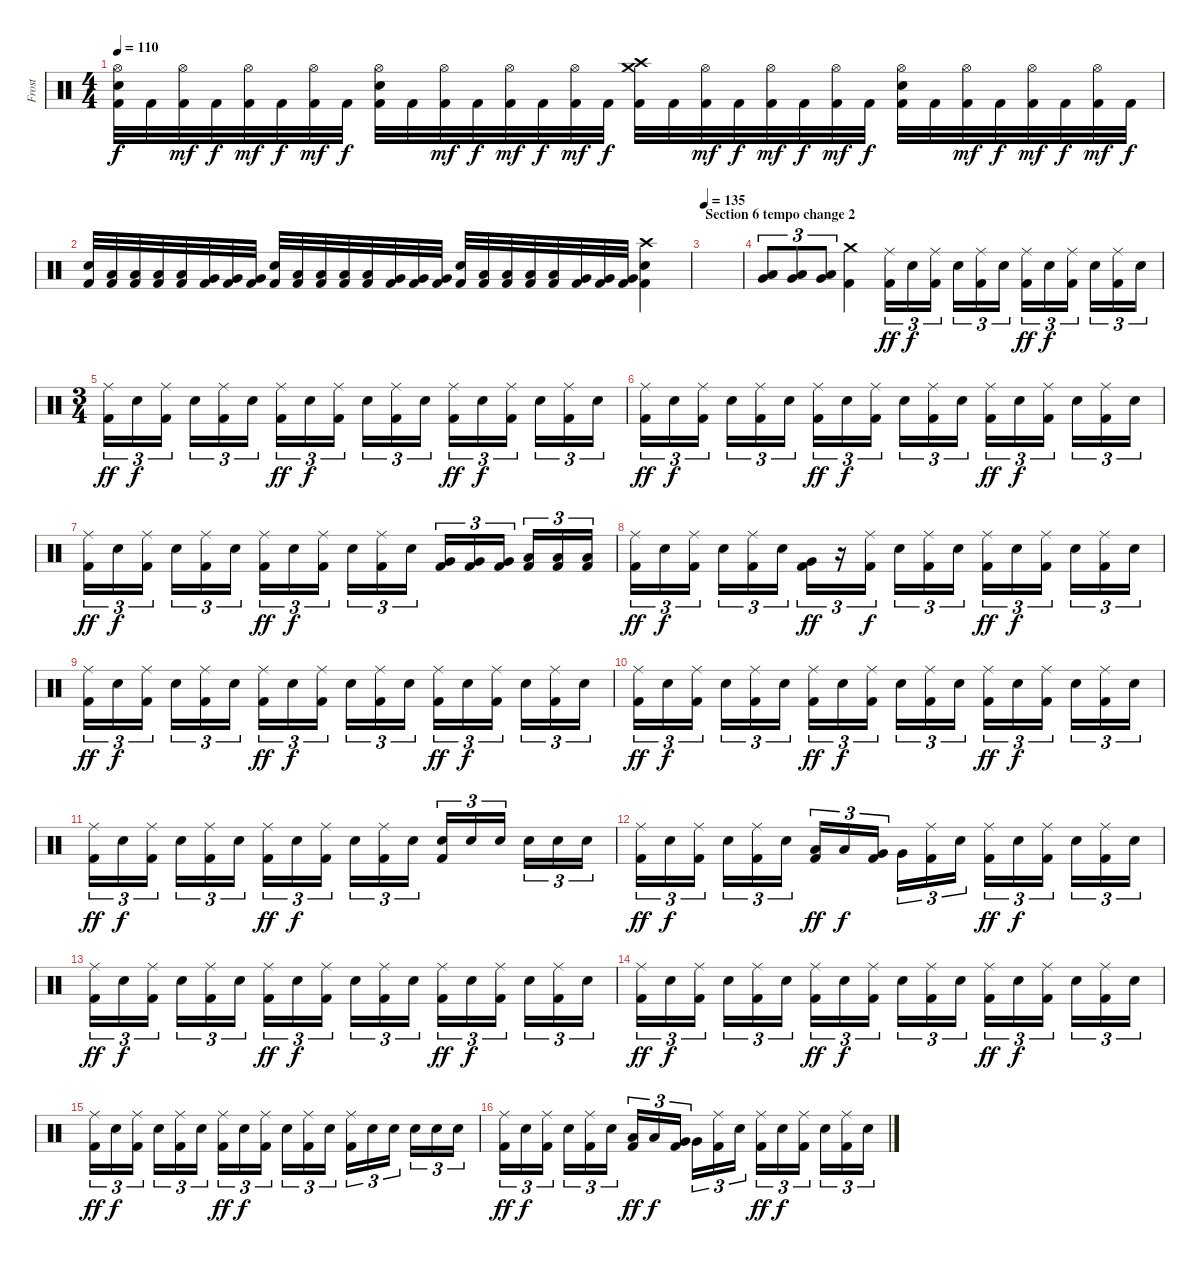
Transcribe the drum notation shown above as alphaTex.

\track ("Frost" "Frost") {instrument percussion}
\staff {score}
\articulation defaults
\ts (4 4)
\tempo 110
\clef neutral
\ks c
("Hi-Hat (open)" "Electric Snare (hit)" "Kick (hit) 2").32{dy f} "Kick (hit) 2".32 ("Hi-Hat (open)" "Kick (hit) 2").32{dy mf} "Kick (hit) 2".32{dy f} ("Hi-Hat (open)" "Kick (hit) 2").32{dy mf} "Kick (hit) 2".32{dy f} ("Hi-Hat (open)" "Kick (hit) 2").32{dy mf} "Kick (hit) 2".32{dy f} ("Hi-Hat (open)" "Electric Snare (hit)" "Kick (hit) 2").32 "Kick (hit) 2".32 ("Hi-Hat (open)" "Kick (hit) 2").32{dy mf} "Kick (hit) 2".32{dy f} ("Hi-Hat (open)" "Kick (hit) 2").32{dy mf} "Kick (hit) 2".32{dy f} ("Hi-Hat (open)" "Kick (hit) 2").32{dy mf} "Kick (hit) 2".32{dy f} ("Crash high (hit)" "Crash medium (hit)" "Kick (hit) 2").32 "Kick (hit) 2".32 ("Hi-Hat (open)" "Kick (hit) 2").32{dy mf} "Kick (hit) 2".32{dy f} ("Hi-Hat (open)" "Kick (hit) 2").32{dy mf} "Kick (hit) 2".32{dy f} ("Hi-Hat (open)" "Kick (hit) 2").32{dy mf} "Kick (hit) 2".32{dy f} ("Hi-Hat (open)" "Electric Snare (hit)" "Kick (hit) 2").32 "Kick (hit) 2".32 ("Hi-Hat (open)" "Kick (hit) 2").32{dy mf} "Kick (hit) 2".32{dy f} ("Hi-Hat (open)" "Kick (hit) 2").32{dy mf} "Kick (hit) 2".32{dy f} ("Hi-Hat (open)" "Kick (hit) 2").32{dy mf} "Kick (hit) 2".32{dy f} |
("Electric Snare (hit)" "Kick (hit) 2").32 ("Low Tom (hit)" "Kick (hit) 2").32 ("Low Tom (hit)" "Kick (hit) 2").32 ("Low Tom (hit)" "Kick (hit) 2").32 ("Low Tom (hit)" "Kick (hit) 2").32 ("Very Low Tom (hit)" "Kick (hit) 2").32 ("Very Low Tom (hit)" "Kick (hit) 2").32 ("Very Low Tom (hit)" "Kick (hit) 2").32 ("Electric Snare (hit)" "Kick (hit) 2").32 ("Low Tom (hit)" "Kick (hit) 2").32 ("Low Tom (hit)" "Kick (hit) 2").32 ("Low Tom (hit)" "Kick (hit) 2").32 ("Low Tom (hit)" "Kick (hit) 2").32 ("Very Low Tom (hit)" "Kick (hit) 2").32 ("Very Low Tom (hit)" "Kick (hit) 2").32 ("Very Low Tom (hit)" "Kick (hit) 2").32 ("Electric Snare (hit)" "Kick (hit) 2").32 ("Low Tom (hit)" "Kick (hit) 2").32 ("Low Tom (hit)" "Kick (hit) 2").32 ("Low Tom (hit)" "Kick (hit) 2").32 ("Low Tom (hit)" "Kick (hit) 2").32 ("Very Low Tom (hit)" "Kick (hit) 2").32 ("Very Low Tom (hit)" "Kick (hit) 2").32 ("Very Low Tom (hit)" "Kick (hit) 2").32 ("Crash high (hit)" "Electric Snare (hit)" "Kick (hit) 2").4 |
\section ("" "Section 6 tempo change 2")
\tempo 135
|
("Very Low Tom (hit)" "Low Floor Tom (hit)").8{tu (3 2)} ("Very Low Tom (hit)" "Low Floor Tom (hit)").8{tu (3 2)} ("Very Low Tom (hit)" "Low Floor Tom (hit)").8{tu (3 2)} ("Crash medium (hit)" "Kick (hit) 2").4 ("Ride (middle)" "Kick (hit) 2").16{tu (3 2) dy ff} "Electric Snare (hit)".16{tu (3 2) dy f} ("Ride (middle)" "Kick (hit) 2").16{tu (3 2)} "Electric Snare (hit)".16{tu (3 2)} ("Ride (middle)" "Kick (hit) 2").16{tu (3 2)} "Electric Snare (hit)".16{tu (3 2)} ("Ride (middle)" "Kick (hit) 2").16{tu (3 2) dy ff} "Electric Snare (hit)".16{tu (3 2) dy f} ("Ride (middle)" "Kick (hit) 2").16{tu (3 2)} "Electric Snare (hit)".16{tu (3 2)} ("Ride (middle)" "Kick (hit) 2").16{tu (3 2)} "Electric Snare (hit)".16{tu (3 2)} |
\ts (3 4)
("Ride (middle)" "Kick (hit) 2").16{tu (3 2) dy ff} "Electric Snare (hit)".16{tu (3 2) dy f} ("Ride (middle)" "Kick (hit) 2").16{tu (3 2)} "Electric Snare (hit)".16{tu (3 2)} ("Ride (middle)" "Kick (hit) 2").16{tu (3 2)} "Electric Snare (hit)".16{tu (3 2)} ("Ride (middle)" "Kick (hit) 2").16{tu (3 2) dy ff} "Electric Snare (hit)".16{tu (3 2) dy f} ("Ride (middle)" "Kick (hit) 2").16{tu (3 2)} "Electric Snare (hit)".16{tu (3 2)} ("Ride (middle)" "Kick (hit) 2").16{tu (3 2)} "Electric Snare (hit)".16{tu (3 2)} ("Ride (middle)" "Kick (hit) 2").16{tu (3 2) dy ff} "Electric Snare (hit)".16{tu (3 2) dy f} ("Ride (middle)" "Kick (hit) 2").16{tu (3 2)} "Electric Snare (hit)".16{tu (3 2)} ("Ride (middle)" "Kick (hit) 2").16{tu (3 2)} "Electric Snare (hit)".16{tu (3 2)} |
("Ride (middle)" "Kick (hit) 2").16{tu (3 2) dy ff} "Electric Snare (hit)".16{tu (3 2) dy f} ("Ride (middle)" "Kick (hit) 2").16{tu (3 2)} "Electric Snare (hit)".16{tu (3 2)} ("Ride (middle)" "Kick (hit) 2").16{tu (3 2)} "Electric Snare (hit)".16{tu (3 2)} ("Ride (middle)" "Kick (hit) 2").16{tu (3 2) dy ff} "Electric Snare (hit)".16{tu (3 2) dy f} ("Ride (middle)" "Kick (hit) 2").16{tu (3 2)} "Electric Snare (hit)".16{tu (3 2)} ("Ride (middle)" "Kick (hit) 2").16{tu (3 2)} "Electric Snare (hit)".16{tu (3 2)} ("Ride (middle)" "Kick (hit) 2").16{tu (3 2) dy ff} "Electric Snare (hit)".16{tu (3 2) dy f} ("Ride (middle)" "Kick (hit) 2").16{tu (3 2)} "Electric Snare (hit)".16{tu (3 2)} ("Ride (middle)" "Kick (hit) 2").16{tu (3 2)} "Electric Snare (hit)".16{tu (3 2)} |
("Ride (middle)" "Kick (hit) 2").16{tu (3 2) dy ff} "Electric Snare (hit)".16{tu (3 2) dy f} ("Ride (middle)" "Kick (hit) 2").16{tu (3 2)} "Electric Snare (hit)".16{tu (3 2)} ("Ride (middle)" "Kick (hit) 2").16{tu (3 2)} "Electric Snare (hit)".16{tu (3 2)} ("Ride (middle)" "Kick (hit) 2").16{tu (3 2) dy ff} "Electric Snare (hit)".16{tu (3 2) dy f} ("Ride (middle)" "Kick (hit) 2").16{tu (3 2)} "Electric Snare (hit)".16{tu (3 2)} ("Ride (middle)" "Kick (hit) 2").16{tu (3 2)} "Electric Snare (hit)".16{tu (3 2)} ("Very Low Tom (hit)" "Kick (hit) 2").16{tu (3 2)} ("Very Low Tom (hit)" "Kick (hit) 2").16{tu (3 2)} ("Very Low Tom (hit)" "Kick (hit) 2").16{tu (3 2)} ("Low Floor Tom (hit)" "Kick (hit) 2").16{tu (3 2)} ("Low Floor Tom (hit)" "Kick (hit) 2").16{tu (3 2)} ("Low Floor Tom (hit)" "Kick (hit) 2").16{tu (3 2)} |
("Ride (middle)" "Kick (hit) 2").16{tu (3 2) dy ff} "Electric Snare (hit)".16{tu (3 2) dy f} ("Ride (middle)" "Kick (hit) 2").16{tu (3 2)} "Electric Snare (hit)".16{tu (3 2)} ("Ride (middle)" "Kick (hit) 2").16{tu (3 2)} "Electric Snare (hit)".16{tu (3 2)} ("Very Low Tom (hit)" "Kick (hit) 2").16{tu (3 2) dy ff} r.16{tu (3 2)} ("Ride (middle)" "Kick (hit) 2").16{tu (3 2) dy f} "Electric Snare (hit)".16{tu (3 2)} ("Ride (middle)" "Kick (hit) 2").16{tu (3 2)} "Electric Snare (hit)".16{tu (3 2)} ("Ride (middle)" "Kick (hit) 2").16{tu (3 2) dy ff} "Electric Snare (hit)".16{tu (3 2) dy f} ("Ride (middle)" "Kick (hit) 2").16{tu (3 2)} "Electric Snare (hit)".16{tu (3 2)} ("Ride (middle)" "Kick (hit) 2").16{tu (3 2)} "Electric Snare (hit)".16{tu (3 2)} |
("Ride (middle)" "Kick (hit) 2").16{tu (3 2) dy ff} "Electric Snare (hit)".16{tu (3 2) dy f} ("Ride (middle)" "Kick (hit) 2").16{tu (3 2)} "Electric Snare (hit)".16{tu (3 2)} ("Ride (middle)" "Kick (hit) 2").16{tu (3 2)} "Electric Snare (hit)".16{tu (3 2)} ("Ride (middle)" "Kick (hit) 2").16{tu (3 2) dy ff} "Electric Snare (hit)".16{tu (3 2) dy f} ("Ride (middle)" "Kick (hit) 2").16{tu (3 2)} "Electric Snare (hit)".16{tu (3 2)} ("Ride (middle)" "Kick (hit) 2").16{tu (3 2)} "Electric Snare (hit)".16{tu (3 2)} ("Ride (middle)" "Kick (hit) 2").16{tu (3 2) dy ff} "Electric Snare (hit)".16{tu (3 2) dy f} ("Ride (middle)" "Kick (hit) 2").16{tu (3 2)} "Electric Snare (hit)".16{tu (3 2)} ("Ride (middle)" "Kick (hit) 2").16{tu (3 2)} "Electric Snare (hit)".16{tu (3 2)} |
("Ride (middle)" "Kick (hit) 2").16{tu (3 2) dy ff} "Electric Snare (hit)".16{tu (3 2) dy f} ("Ride (middle)" "Kick (hit) 2").16{tu (3 2)} "Electric Snare (hit)".16{tu (3 2)} ("Ride (middle)" "Kick (hit) 2").16{tu (3 2)} "Electric Snare (hit)".16{tu (3 2)} ("Ride (middle)" "Kick (hit) 2").16{tu (3 2) dy ff} "Electric Snare (hit)".16{tu (3 2) dy f} ("Ride (middle)" "Kick (hit) 2").16{tu (3 2)} "Electric Snare (hit)".16{tu (3 2)} ("Ride (middle)" "Kick (hit) 2").16{tu (3 2)} "Electric Snare (hit)".16{tu (3 2)} ("Ride (middle)" "Kick (hit) 2").16{tu (3 2) dy ff} "Electric Snare (hit)".16{tu (3 2) dy f} ("Ride (middle)" "Kick (hit) 2").16{tu (3 2)} "Electric Snare (hit)".16{tu (3 2)} ("Ride (middle)" "Kick (hit) 2").16{tu (3 2)} "Electric Snare (hit)".16{tu (3 2)} |
("Ride (middle)" "Kick (hit) 2").16{tu (3 2) dy ff} "Electric Snare (hit)".16{tu (3 2) dy f} ("Ride (middle)" "Kick (hit) 2").16{tu (3 2)} "Electric Snare (hit)".16{tu (3 2)} ("Ride (middle)" "Kick (hit) 2").16{tu (3 2)} "Electric Snare (hit)".16{tu (3 2)} ("Ride (middle)" "Kick (hit) 2").16{tu (3 2) dy ff} "Electric Snare (hit)".16{tu (3 2) dy f} ("Ride (middle)" "Kick (hit) 2").16{tu (3 2)} "Electric Snare (hit)".16{tu (3 2)} ("Ride (middle)" "Kick (hit) 2").16{tu (3 2)} "Electric Snare (hit)".16{tu (3 2)} ("Electric Snare (hit)" "Kick (hit) 2").16{tu (3 2)} "Electric Snare (hit)".16{tu (3 2)} "Electric Snare (hit)".16{tu (3 2)} "Electric Snare (hit)".16{tu (3 2)} "Electric Snare (hit)".16{tu (3 2)} "Electric Snare (hit)".16{tu (3 2)} |
("Ride (middle)" "Kick (hit) 2").16{tu (3 2) dy ff} "Electric Snare (hit)".16{tu (3 2) dy f} ("Ride (middle)" "Kick (hit) 2").16{tu (3 2)} "Electric Snare (hit)".16{tu (3 2)} ("Ride (middle)" "Kick (hit) 2").16{tu (3 2)} "Electric Snare (hit)".16{tu (3 2)} ("Low Tom (hit)" "Kick (hit) 2").16{tu (3 2) dy ff} "Low Tom (hit)".16{tu (3 2) dy f} ("Very Low Tom (hit)" "Kick (hit) 2").16{tu (3 2)} "Very Low Tom (hit)".16{tu (3 2)} ("Ride (middle)" "Kick (hit) 2").16{tu (3 2)} "Electric Snare (hit)".16{tu (3 2)} ("Ride (middle)" "Kick (hit) 2").16{tu (3 2) dy ff} "Electric Snare (hit)".16{tu (3 2) dy f} ("Ride (middle)" "Kick (hit) 2").16{tu (3 2)} "Electric Snare (hit)".16{tu (3 2)} ("Ride (middle)" "Kick (hit) 2").16{tu (3 2)} "Electric Snare (hit)".16{tu (3 2)} |
("Ride (middle)" "Kick (hit) 2").16{tu (3 2) dy ff} "Electric Snare (hit)".16{tu (3 2) dy f} ("Ride (middle)" "Kick (hit) 2").16{tu (3 2)} "Electric Snare (hit)".16{tu (3 2)} ("Ride (middle)" "Kick (hit) 2").16{tu (3 2)} "Electric Snare (hit)".16{tu (3 2)} ("Ride (middle)" "Kick (hit) 2").16{tu (3 2) dy ff} "Electric Snare (hit)".16{tu (3 2) dy f} ("Ride (middle)" "Kick (hit) 2").16{tu (3 2)} "Electric Snare (hit)".16{tu (3 2)} ("Ride (middle)" "Kick (hit) 2").16{tu (3 2)} "Electric Snare (hit)".16{tu (3 2)} ("Ride (middle)" "Kick (hit) 2").16{tu (3 2) dy ff} "Electric Snare (hit)".16{tu (3 2) dy f} ("Ride (middle)" "Kick (hit) 2").16{tu (3 2)} "Electric Snare (hit)".16{tu (3 2)} ("Ride (middle)" "Kick (hit) 2").16{tu (3 2)} "Electric Snare (hit)".16{tu (3 2)} |
("Ride (middle)" "Kick (hit) 2").16{tu (3 2) dy ff} "Electric Snare (hit)".16{tu (3 2) dy f} ("Ride (middle)" "Kick (hit) 2").16{tu (3 2)} "Electric Snare (hit)".16{tu (3 2)} ("Ride (middle)" "Kick (hit) 2").16{tu (3 2)} "Electric Snare (hit)".16{tu (3 2)} ("Ride (middle)" "Kick (hit) 2").16{tu (3 2) dy ff} "Electric Snare (hit)".16{tu (3 2) dy f} ("Ride (middle)" "Kick (hit) 2").16{tu (3 2)} "Electric Snare (hit)".16{tu (3 2)} ("Ride (middle)" "Kick (hit) 2").16{tu (3 2)} "Electric Snare (hit)".16{tu (3 2)} ("Ride (middle)" "Kick (hit) 2").16{tu (3 2) dy ff} "Electric Snare (hit)".16{tu (3 2) dy f} ("Ride (middle)" "Kick (hit) 2").16{tu (3 2)} "Electric Snare (hit)".16{tu (3 2)} ("Ride (middle)" "Kick (hit) 2").16{tu (3 2)} "Electric Snare (hit)".16{tu (3 2)} |
("Ride (middle)" "Kick (hit) 2").16{tu (3 2) dy ff} "Electric Snare (hit)".16{tu (3 2) dy f} ("Ride (middle)" "Kick (hit) 2").16{tu (3 2)} "Electric Snare (hit)".16{tu (3 2)} ("Ride (middle)" "Kick (hit) 2").16{tu (3 2)} "Electric Snare (hit)".16{tu (3 2)} ("Ride (middle)" "Kick (hit) 2").16{tu (3 2) dy ff} "Electric Snare (hit)".16{tu (3 2) dy f} ("Ride (middle)" "Kick (hit) 2").16{tu (3 2)} "Electric Snare (hit)".16{tu (3 2)} ("Ride (middle)" "Kick (hit) 2").16{tu (3 2)} "Electric Snare (hit)".16{tu (3 2)} ("Ride (middle)" "Kick (hit) 2").16{tu (3 2)} "Electric Snare (hit)".16{tu (3 2)} "Electric Snare (hit)".16{tu (3 2)} "Electric Snare (hit)".16{tu (3 2)} "Electric Snare (hit)".16{tu (3 2)} "Electric Snare (hit)".16{tu (3 2)} |
("Ride (middle)" "Kick (hit) 2").16{tu (3 2) dy ff} "Electric Snare (hit)".16{tu (3 2) dy f} ("Ride (middle)" "Kick (hit) 2").16{tu (3 2)} "Electric Snare (hit)".16{tu (3 2)} ("Ride (middle)" "Kick (hit) 2").16{tu (3 2)} "Electric Snare (hit)".16{tu (3 2)} ("Low Tom (hit)" "Kick (hit) 2").16{tu (3 2) dy ff} "Low Tom (hit)".16{tu (3 2) dy f} ("Very Low Tom (hit)" "Kick (hit) 2").16{tu (3 2)} "Very Low Tom (hit)".16{tu (3 2)} ("Ride (middle)" "Kick (hit) 2").16{tu (3 2)} "Electric Snare (hit)".16{tu (3 2)} ("Ride (middle)" "Kick (hit) 2").16{tu (3 2) dy ff} "Electric Snare (hit)".16{tu (3 2) dy f} ("Ride (middle)" "Kick (hit) 2").16{tu (3 2)} "Electric Snare (hit)".16{tu (3 2)} ("Ride (middle)" "Kick (hit) 2").16{tu (3 2)} "Electric Snare (hit)".16{tu (3 2)}
